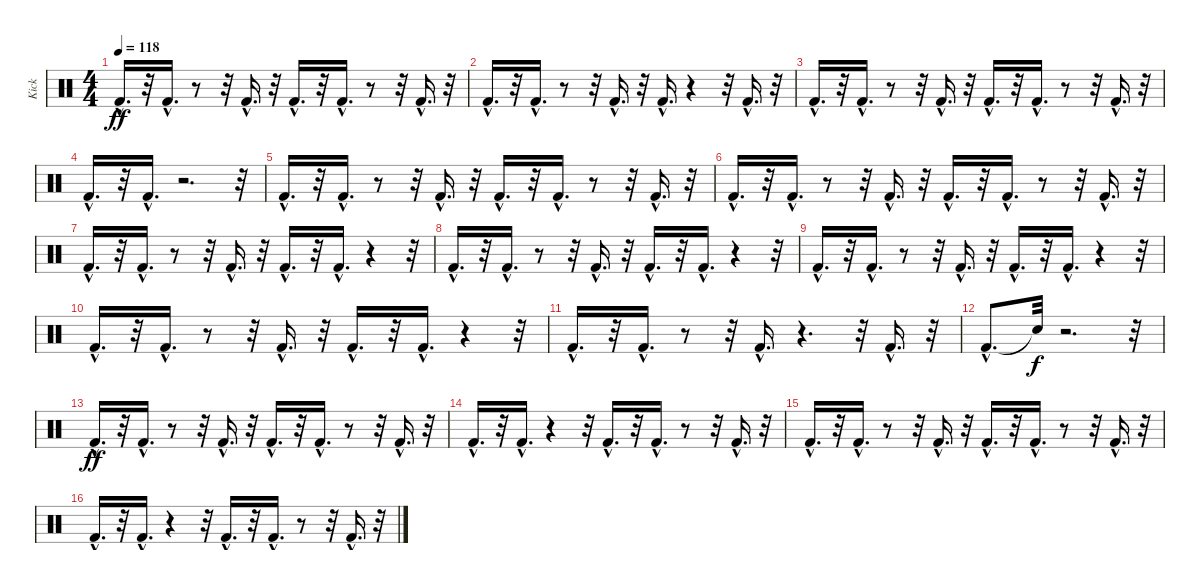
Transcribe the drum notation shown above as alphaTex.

\track ("Kick                " "Kick      ") {instrument percussion}
\staff {score}
\articulation defaults
\ts (4 4)
\tempo 118
\clef neutral
\ks c "Kick (hit) 2"{hac}.16{d dy ff}
r.32 "Kick (hit) 2"{hac}.16{d} r.8 r.32 "Kick (hit) 2"{hac}.16{d} r.32 "Kick (hit) 2"{hac}.16{d} r.32 "Kick (hit) 2"{hac}.16{d} r.8 r.32 "Kick (hit) 2"{hac}.16{d} r.32 |
"Kick (hit) 2"{hac}.16{d} r.32 "Kick (hit) 2"{hac}.16{d} r.8 r.32 "Kick (hit) 2"{hac}.16{d} r.32 "Kick (hit) 2"{hac}.16{d} r.4 r.32 "Kick (hit) 2"{hac}.16{d} r.32 |
"Kick (hit) 2"{hac}.16{d} r.32 "Kick (hit) 2"{hac}.16{d} r.8 r.32 "Kick (hit) 2"{hac}.16{d} r.32 "Kick (hit) 2"{hac}.16{d} r.32 "Kick (hit) 2"{hac}.16{d} r.8 r.32 "Kick (hit) 2"{hac}.16{d} r.32 |
"Kick (hit) 2"{hac}.16{d} r.32 "Kick (hit) 2"{hac}.16{d} r.2{d} r.32 |
"Kick (hit) 2"{hac}.16{d} r.32 "Kick (hit) 2"{hac}.16{d} r.8 r.32 "Kick (hit) 2"{hac}.16{d} r.32 "Kick (hit) 2"{hac}.16{d} r.32 "Kick (hit) 2"{hac}.16{d} r.8 r.32 "Kick (hit) 2"{hac}.16{d} r.32 |
"Kick (hit) 2"{hac}.16{d} r.32 "Kick (hit) 2"{hac}.16{d} r.8 r.32 "Kick (hit) 2"{hac}.16{d} r.32 "Kick (hit) 2"{hac}.16{d} r.32 "Kick (hit) 2"{hac}.16{d} r.8 r.32 "Kick (hit) 2"{hac}.16{d} r.32 |
"Kick (hit) 2"{hac}.16{d} r.32 "Kick (hit) 2"{hac}.16{d} r.8 r.32 "Kick (hit) 2"{hac}.16{d} r.32 "Kick (hit) 2"{hac}.16{d} r.32 "Kick (hit) 2"{hac}.16{d} r.4 r.32 |
"Kick (hit) 2"{hac}.16{d} r.32 "Kick (hit) 2"{hac}.16{d} r.8 r.32 "Kick (hit) 2"{hac}.16{d} r.32 "Kick (hit) 2"{hac}.16{d} r.32 "Kick (hit) 2"{hac}.16{d} r.4 r.32 |
"Kick (hit) 2"{hac}.16{d} r.32 "Kick (hit) 2"{hac}.16{d} r.8 r.32 "Kick (hit) 2"{hac}.16{d} r.32 "Kick (hit) 2"{hac}.16{d} r.32 "Kick (hit) 2"{hac}.16{d} r.4 r.32 |
"Kick (hit) 2"{hac}.16{d} r.32 "Kick (hit) 2"{hac}.16{d} r.8 r.32 "Kick (hit) 2"{hac}.16{d} r.32 "Kick (hit) 2"{hac}.16{d} r.32 "Kick (hit) 2"{hac}.16{d} r.4 r.32 |
"Kick (hit) 2"{hac}.16{d} r.32 "Kick (hit) 2"{hac}.16{d} r.8 r.32 "Kick (hit) 2"{hac}.16{d} r.4{d} r.32 "Kick (hit) 2"{hac}.16{d} r.32 |
"Kick (hit) 2"{hac}.8{d} "Snare (hit)"{t}.32{dy f} r.2{d} r.32 |
"Kick (hit) 2"{hac}.16{d dy ff} r.32 "Kick (hit) 2"{hac}.16{d} r.8 r.32 "Kick (hit) 2"{hac}.16{d} r.32 "Kick (hit) 2"{hac}.16{d} r.32 "Kick (hit) 2"{hac}.16{d} r.8 r.32 "Kick (hit) 2"{hac}.16{d} r.32 |
"Kick (hit) 2"{hac}.16{d} r.32 "Kick (hit) 2"{hac}.16{d} r.4 r.32 "Kick (hit) 2"{hac}.16{d} r.32 "Kick (hit) 2"{hac}.16{d} r.8 r.32 "Kick (hit) 2"{hac}.16{d} r.32 |
"Kick (hit) 2"{hac}.16{d} r.32 "Kick (hit) 2"{hac}.16{d} r.8 r.32 "Kick (hit) 2"{hac}.16{d} r.32 "Kick (hit) 2"{hac}.16{d} r.32 "Kick (hit) 2"{hac}.16{d} r.8 r.32 "Kick (hit) 2"{hac}.16{d} r.32 |
"Kick (hit) 2"{hac}.16{d} r.32 "Kick (hit) 2"{hac}.16{d} r.4 r.32 "Kick (hit) 2"{hac}.16{d} r.32 "Kick (hit) 2"{hac}.16{d} r.8 r.32 "Kick (hit) 2"{hac}.16{d} r.32
